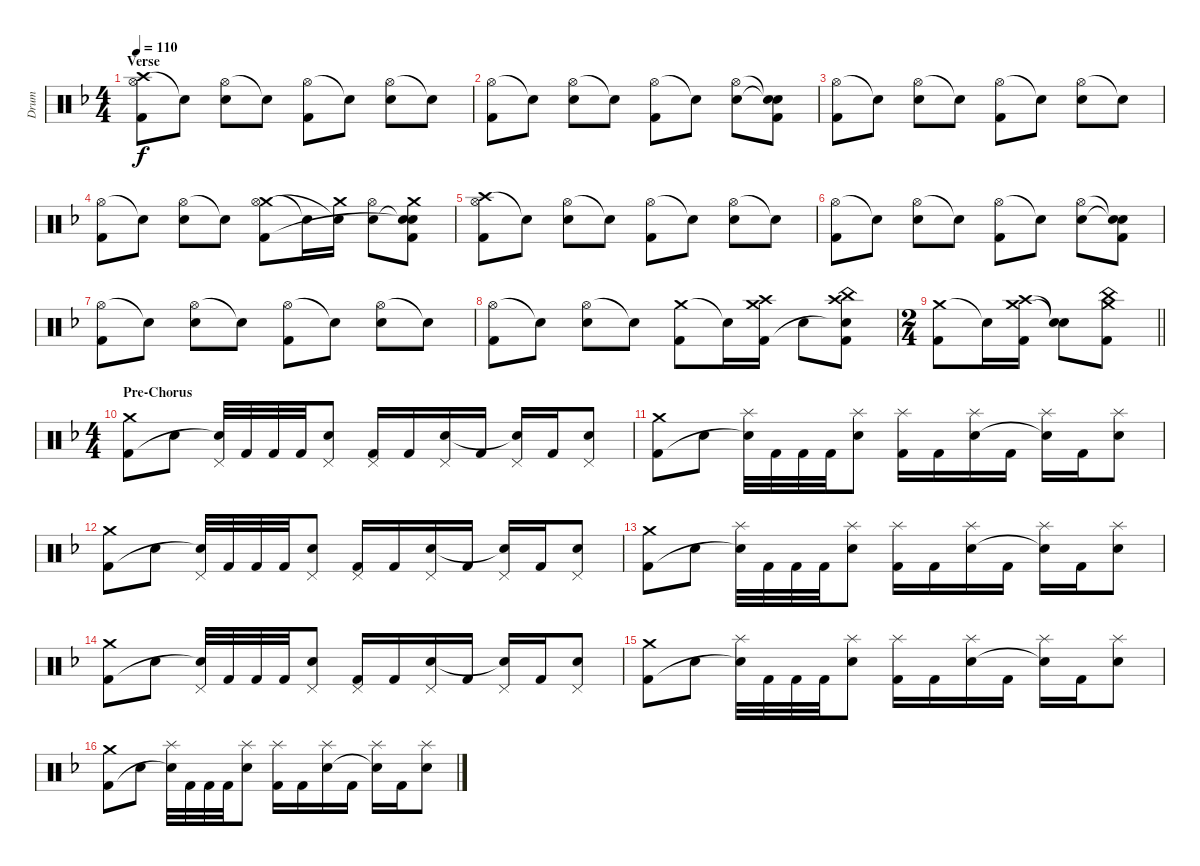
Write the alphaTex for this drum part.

\track ("Drum" "Drum") {instrument percussion}
\staff {score}
\articulation defaults
\ts (4 4)
\section ("" "Verse")
\tempo 110
\clef neutral
\ks f
("Crash high (hit)" "Hi-Hat (open)" "Kick (hit) 2").8{dy f} "Snare (hit)"{t}.8 ("Hi-Hat (open)" "Electric Snare (hit)").8 "Snare (hit)"{t}.8 ("Hi-Hat (open)" "Kick (hit) 2").8 "Snare (hit)"{t}.8 ("Hi-Hat (open)" "Electric Snare (hit)").8 "Snare (hit)"{t}.8 |
("Hi-Hat (open)" "Kick (hit) 2").8 "Snare (hit)"{t}.8 ("Hi-Hat (open)" "Electric Snare (hit)").8 "Snare (hit)"{t}.8 ("Hi-Hat (open)" "Kick (hit) 2").8 "Snare (hit)"{t}.8 ("Hi-Hat (open)" "Electric Snare (hit)").8 ("Snare (hit)"{t} "Snare (hit)"{t} "Kick (hit) 2").8 |
("Hi-Hat (open)" "Kick (hit) 2").8 "Snare (hit)"{t}.8 ("Hi-Hat (open)" "Electric Snare (hit)").8 "Snare (hit)"{t}.8 ("Hi-Hat (open)" "Kick (hit) 2").8 "Snare (hit)"{t}.8 ("Hi-Hat (open)" "Electric Snare (hit)").8 "Snare (hit)"{t}.8 |
("Hi-Hat (open)" "Kick (hit) 2").8 "Snare (hit)"{t}.8 ("Hi-Hat (open)" "Electric Snare (hit)").8 "Snare (hit)"{t}.8 ("Crash medium (hit)" "Hi-Hat (open)" "Kick (hit) 2").8 "Snare (hit)"{t}.16 ("Crash medium (hit)" "Snare (hit)"{t}).16 ("Hi-Hat (open)" "Snare (hit) 2").8 ("Crash medium (hit)" "Snare (hit)"{t} "Snare (hit)"{t} "Kick (hit) 2").8 |
("Crash high (hit)" "Hi-Hat (open)" "Kick (hit) 2").8 "Snare (hit)"{t}.8 ("Hi-Hat (open)" "Electric Snare (hit)").8 "Snare (hit)"{t}.8 ("Hi-Hat (open)" "Kick (hit) 2").8 "Snare (hit)"{t}.8 ("Hi-Hat (open)" "Electric Snare (hit)").8 "Snare (hit)"{t}.8 |
("Hi-Hat (open)" "Kick (hit) 2").8 "Snare (hit)"{t}.8 ("Hi-Hat (open)" "Electric Snare (hit)").8 "Snare (hit)"{t}.8 ("Hi-Hat (open)" "Kick (hit) 2").8 "Snare (hit)"{t}.8 ("Hi-Hat (open)" "Electric Snare (hit)").8 ("Snare (hit)"{t} "Snare (hit)"{t} "Kick (hit) 2").8 |
("Hi-Hat (open)" "Kick (hit) 2").8 "Snare (hit)"{t}.8 ("Hi-Hat (open)" "Electric Snare (hit)").8 "Snare (hit)"{t}.8 ("Hi-Hat (open)" "Kick (hit) 2").8 "Snare (hit)"{t}.8 ("Hi-Hat (open)" "Electric Snare (hit)").8 "Snare (hit)"{t}.8 |
("Hi-Hat (open)" "Kick (hit) 2").8 "Snare (hit)"{t}.8 ("Hi-Hat (open)" "Snare (hit) 2").8 "Snare (hit)"{t}.8 ("Crash medium (hit)" "Kick (hit) 2").8 "Snare (hit)"{t}.16 ("Crash medium (hit)" "Crash high (hit)" "Kick (hit) 2").16 "Snare (hit) 2".8 ("Crash high (hit)" "China (hit)" "Snare (hit)"{t} "Kick (hit) 2").8 |
\ts (2 4)
\barLineRight lightlight
("Crash medium (hit)" "Kick (hit) 2").8 "Snare (hit)"{t}.16 ("Crash medium (hit)" "Crash high (hit)" "Kick (hit) 2").16 ("Snare (hit)"{t} "Snare (hit)"{t}).8 ("Crash medium (hit)" "China (hit)" "Kick (hit) 2").8 |
\ts (4 4)
\section ("" "Pre-Chorus")
("Crash medium (hit)" "Kick (hit) 2").8 "Electric Snare (hit)".8 ("Pedal Hi-Hat (hit)" "Snare (hit)"{t}).32 "Kick (hit) 2".32 "Kick (hit) 2".32 "Kick (hit) 2".32 ("Pedal Hi-Hat (hit)" "Electric Snare (hit)").8 ("Pedal Hi-Hat (hit)" "Kick (hit) 2").16 "Kick (hit) 2".16 ("Pedal Hi-Hat (hit)" "Electric Snare (hit)").16 "Kick (hit) 2".16 ("Pedal Hi-Hat (hit)" "Snare (hit)"{t}).16 "Kick (hit) 2".16 ("Pedal Hi-Hat (hit)" "Electric Snare (hit)").8 |
("Crash medium (hit)" "Kick (hit) 2").8 "Electric Snare (hit)".8 ("Splash (hit)" "Snare (hit)"{t}).32 "Kick (hit) 2".32 "Kick (hit) 2".32 "Kick (hit) 2".32 ("Splash (hit)" "Electric Snare (hit)").8 ("Splash (hit)" "Kick (hit) 2").16 "Kick (hit) 2".16 ("Splash (hit)" "Electric Snare (hit)").16 "Kick (hit) 2".16 ("Splash (hit)" "Snare (hit)"{t}).16 "Kick (hit) 2".16 ("Splash (hit)" "Electric Snare (hit)").8 |
("Crash medium (hit)" "Kick (hit) 2").8 "Electric Snare (hit)".8 ("Pedal Hi-Hat (hit)" "Snare (hit)"{t}).32 "Kick (hit) 2".32 "Kick (hit) 2".32 "Kick (hit) 2".32 ("Pedal Hi-Hat (hit)" "Electric Snare (hit)").8 ("Pedal Hi-Hat (hit)" "Kick (hit) 2").16 "Kick (hit) 2".16 ("Pedal Hi-Hat (hit)" "Electric Snare (hit)").16 "Kick (hit) 2".16 ("Pedal Hi-Hat (hit)" "Snare (hit)"{t}).16 "Kick (hit) 2".16 ("Pedal Hi-Hat (hit)" "Electric Snare (hit)").8 |
("Crash medium (hit)" "Kick (hit) 2").8 "Electric Snare (hit)".8 ("Splash (hit)" "Snare (hit)"{t}).32 "Kick (hit) 2".32 "Kick (hit) 2".32 "Kick (hit) 2".32 ("Splash (hit)" "Electric Snare (hit)").8 ("Splash (hit)" "Kick (hit) 2").16 "Kick (hit) 2".16 ("Splash (hit)" "Electric Snare (hit)").16 "Kick (hit) 2".16 ("Splash (hit)" "Snare (hit)"{t}).16 "Kick (hit) 2".16 ("Splash (hit)" "Electric Snare (hit)").8 |
("Crash medium (hit)" "Kick (hit) 2").8 "Snare (hit) 2".8 ("Pedal Hi-Hat (hit)" "Snare (hit)"{t}).32 "Kick (hit) 2".32 "Kick (hit) 2".32 "Kick (hit) 2".32 ("Pedal Hi-Hat (hit)" "Snare (hit) 2").8 ("Pedal Hi-Hat (hit)" "Kick (hit) 2").16 "Kick (hit) 2".16 ("Pedal Hi-Hat (hit)" "Snare (hit) 2").16 "Kick (hit) 2".16 ("Pedal Hi-Hat (hit)" "Snare (hit)"{t}).16 "Kick (hit) 2".16 ("Pedal Hi-Hat (hit)" "Snare (hit) 2").8 |
("Crash medium (hit)" "Kick (hit) 2").8 "Snare (hit) 2".8 ("Splash (hit)" "Snare (hit)"{t}).32 "Kick (hit) 2".32 "Kick (hit) 2".32 "Kick (hit) 2".32 ("Splash (hit)" "Snare (hit) 2").8 ("Splash (hit)" "Kick (hit) 2").16 "Kick (hit) 2".16 ("Splash (hit)" "Snare (hit) 2").16 "Kick (hit) 2".16 ("Splash (hit)" "Snare (hit)"{t}).16 "Kick (hit) 2".16 ("Splash (hit)" "Snare (hit) 2").8 |
("Crash medium (hit)" "Kick (hit) 2").8 "Snare (hit) 2".8 ("Splash (hit)" "Snare (hit)"{t}).32 "Kick (hit) 2".32 "Kick (hit) 2".32 "Kick (hit) 2".32 ("Splash (hit)" "Snare (hit) 2").8 ("Splash (hit)" "Kick (hit) 2").16 "Kick (hit) 2".16 ("Splash (hit)" "Snare (hit) 2").16 "Kick (hit) 2".16 ("Splash (hit)" "Snare (hit)"{t}).16 "Kick (hit) 2".16 ("Splash (hit)" "Snare (hit) 2").8
